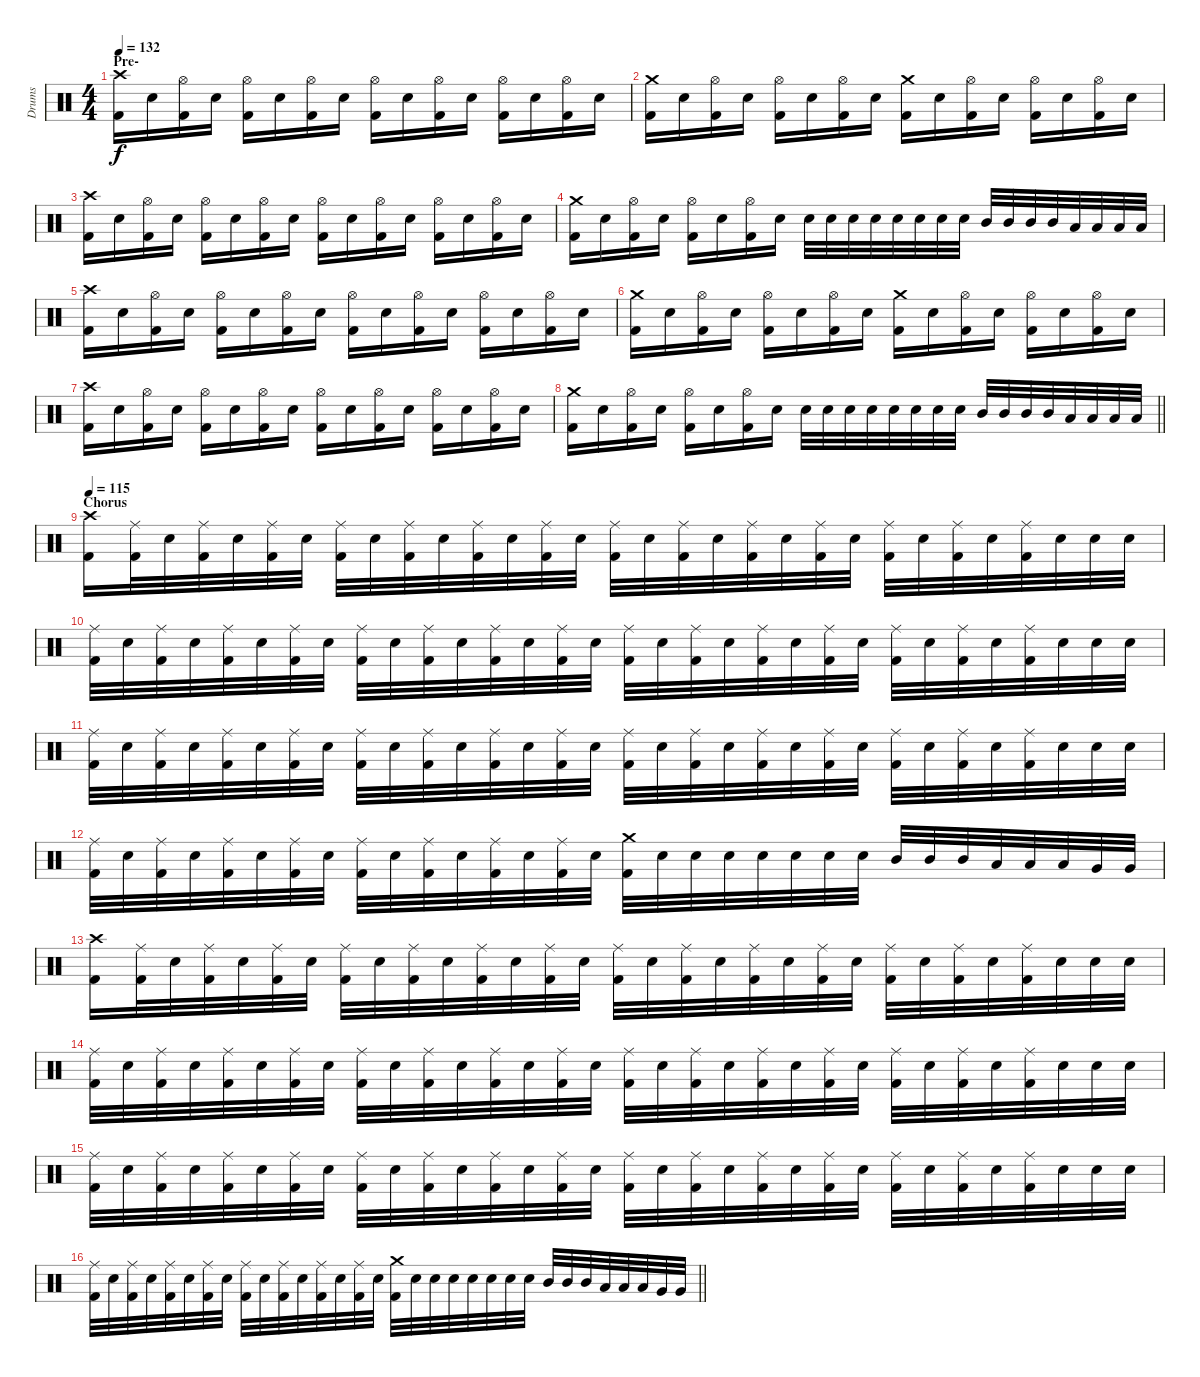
\track ("Drums" "Drums") {instrument percussion}
\staff {score}
\articulation defaults
\ts (4 4)
\section ("" "Pre-")
\tempo 132
\clef neutral
\ks c
("Crash high (hit)" "Kick (hit) 2").16{dy f} "Electric Snare (hit)".16 ("Hi-Hat (open)" "Kick (hit) 2").16 "Electric Snare (hit)".16 ("Hi-Hat (open)" "Kick (hit) 2").16 "Electric Snare (hit)".16 ("Hi-Hat (open)" "Kick (hit) 2").16 "Electric Snare (hit)".16 ("Hi-Hat (open)" "Kick (hit) 2").16 "Electric Snare (hit)".16 ("Hi-Hat (open)" "Kick (hit) 2").16 "Electric Snare (hit)".16 ("Hi-Hat (open)" "Kick (hit) 2").16 "Electric Snare (hit)".16 ("Hi-Hat (open)" "Kick (hit) 2").16 "Electric Snare (hit)".16 |
("Crash medium (hit)" "Kick (hit) 2").16 "Electric Snare (hit)".16 ("Hi-Hat (open)" "Kick (hit) 2").16 "Electric Snare (hit)".16 ("Hi-Hat (open)" "Kick (hit) 2").16 "Electric Snare (hit)".16 ("Hi-Hat (open)" "Kick (hit) 2").16 "Electric Snare (hit)".16 ("Crash medium (hit)" "Kick (hit) 2").16 "Electric Snare (hit)".16 ("Hi-Hat (open)" "Kick (hit) 2").16 "Electric Snare (hit)".16 ("Hi-Hat (open)" "Kick (hit) 2").16 "Electric Snare (hit)".16 ("Hi-Hat (open)" "Kick (hit) 2").16 "Electric Snare (hit)".16 |
("Crash high (hit)" "Kick (hit) 2").16 "Electric Snare (hit)".16 ("Hi-Hat (open)" "Kick (hit) 2").16 "Electric Snare (hit)".16 ("Hi-Hat (open)" "Kick (hit) 2").16 "Electric Snare (hit)".16 ("Hi-Hat (open)" "Kick (hit) 2").16 "Electric Snare (hit)".16 ("Hi-Hat (open)" "Kick (hit) 2").16 "Electric Snare (hit)".16 ("Hi-Hat (open)" "Kick (hit) 2").16 "Electric Snare (hit)".16 ("Hi-Hat (open)" "Kick (hit) 2").16 "Electric Snare (hit)".16 ("Hi-Hat (open)" "Kick (hit) 2").16 "Electric Snare (hit)".16 |
("Crash medium (hit)" "Kick (hit) 2").16 "Electric Snare (hit)".16 ("Hi-Hat (open)" "Kick (hit) 2").16 "Electric Snare (hit)".16 ("Hi-Hat (open)" "Kick (hit) 2").16 "Electric Snare (hit)".16 ("Hi-Hat (open)" "Kick (hit) 2").16 "Electric Snare (hit)".16 "Electric Snare (hit)".32 "Electric Snare (hit)".32 "Electric Snare (hit)".32 "Electric Snare (hit)".32 "Electric Snare (hit)".32 "Electric Snare (hit)".32 "Electric Snare (hit)".32 "Electric Snare (hit)".32 "Mid Tom (hit)".32 "Mid Tom (hit)".32 "Mid Tom (hit)".32 "Mid Tom (hit)".32 "Low Tom (hit)".32 "Low Tom (hit)".32 "Low Tom (hit)".32 "Low Tom (hit)".32 |
("Crash high (hit)" "Kick (hit) 2").16 "Electric Snare (hit)".16 ("Hi-Hat (open)" "Kick (hit) 2").16 "Electric Snare (hit)".16 ("Hi-Hat (open)" "Kick (hit) 2").16 "Electric Snare (hit)".16 ("Hi-Hat (open)" "Kick (hit) 2").16 "Electric Snare (hit)".16 ("Hi-Hat (open)" "Kick (hit) 2").16 "Electric Snare (hit)".16 ("Hi-Hat (open)" "Kick (hit) 2").16 "Electric Snare (hit)".16 ("Hi-Hat (open)" "Kick (hit) 2").16 "Electric Snare (hit)".16 ("Hi-Hat (open)" "Kick (hit) 2").16 "Electric Snare (hit)".16 |
("Crash medium (hit)" "Kick (hit) 2").16 "Electric Snare (hit)".16 ("Hi-Hat (open)" "Kick (hit) 2").16 "Electric Snare (hit)".16 ("Hi-Hat (open)" "Kick (hit) 2").16 "Electric Snare (hit)".16 ("Hi-Hat (open)" "Kick (hit) 2").16 "Electric Snare (hit)".16 ("Crash medium (hit)" "Kick (hit) 2").16 "Electric Snare (hit)".16 ("Hi-Hat (open)" "Kick (hit) 2").16 "Electric Snare (hit)".16 ("Hi-Hat (open)" "Kick (hit) 2").16 "Electric Snare (hit)".16 ("Hi-Hat (open)" "Kick (hit) 2").16 "Electric Snare (hit)".16 |
("Crash high (hit)" "Kick (hit) 2").16 "Electric Snare (hit)".16 ("Hi-Hat (open)" "Kick (hit) 2").16 "Electric Snare (hit)".16 ("Hi-Hat (open)" "Kick (hit) 2").16 "Electric Snare (hit)".16 ("Hi-Hat (open)" "Kick (hit) 2").16 "Electric Snare (hit)".16 ("Hi-Hat (open)" "Kick (hit) 2").16 "Electric Snare (hit)".16 ("Hi-Hat (open)" "Kick (hit) 2").16 "Electric Snare (hit)".16 ("Hi-Hat (open)" "Kick (hit) 2").16 "Electric Snare (hit)".16 ("Hi-Hat (open)" "Kick (hit) 2").16 "Electric Snare (hit)".16 |
\barLineRight lightlight
("Crash medium (hit)" "Kick (hit) 2").16 "Electric Snare (hit)".16 ("Hi-Hat (open)" "Kick (hit) 2").16 "Electric Snare (hit)".16 ("Hi-Hat (open)" "Kick (hit) 2").16 "Electric Snare (hit)".16 ("Hi-Hat (open)" "Kick (hit) 2").16 "Electric Snare (hit)".16 "Electric Snare (hit)".32 "Electric Snare (hit)".32 "Electric Snare (hit)".32 "Electric Snare (hit)".32 "Electric Snare (hit)".32 "Electric Snare (hit)".32 "Electric Snare (hit)".32 "Electric Snare (hit)".32 "Mid Tom (hit)".32 "Mid Tom (hit)".32 "Mid Tom (hit)".32 "Mid Tom (hit)".32 "Low Tom (hit)".32 "Low Tom (hit)".32 "Low Tom (hit)".32 "Low Tom (hit)".32 |
\section ("" "Chorus")
\tempo 115
("Crash high (hit)" "Kick (hit) 2").16 ("Ride (middle)" "Kick (hit) 2").32 "Electric Snare (hit)".32 ("Ride (middle)" "Kick (hit) 2").32 "Electric Snare (hit)".32 ("Ride (middle)" "Kick (hit) 2").32 "Electric Snare (hit)".32 ("Ride (middle)" "Kick (hit) 2").32 "Electric Snare (hit)".32 ("Ride (middle)" "Kick (hit) 2").32 "Electric Snare (hit)".32 ("Ride (middle)" "Kick (hit) 2").32 "Electric Snare (hit)".32 ("Ride (middle)" "Kick (hit) 2").32 "Electric Snare (hit)".32 ("Ride (middle)" "Kick (hit) 2").32 "Electric Snare (hit)".32 ("Ride (middle)" "Kick (hit) 2").32 "Electric Snare (hit)".32 ("Ride (middle)" "Kick (hit) 2").32 "Electric Snare (hit)".32 ("Ride (middle)" "Kick (hit) 2").32 "Electric Snare (hit)".32 ("Ride (middle)" "Kick (hit) 2").32 "Electric Snare (hit)".32 ("Ride (middle)" "Kick (hit) 2").32 "Electric Snare (hit)".32 ("Ride (middle)" "Kick (hit) 2").32 "Electric Snare (hit)".32 "Electric Snare (hit)".32 "Electric Snare (hit)".32 |
("Ride (middle)" "Kick (hit) 2").32 "Electric Snare (hit)".32 ("Ride (middle)" "Kick (hit) 2").32 "Electric Snare (hit)".32 ("Ride (middle)" "Kick (hit) 2").32 "Electric Snare (hit)".32 ("Ride (middle)" "Kick (hit) 2").32 "Electric Snare (hit)".32 ("Ride (middle)" "Kick (hit) 2").32 "Electric Snare (hit)".32 ("Ride (middle)" "Kick (hit) 2").32 "Electric Snare (hit)".32 ("Ride (middle)" "Kick (hit) 2").32 "Electric Snare (hit)".32 ("Ride (middle)" "Kick (hit) 2").32 "Electric Snare (hit)".32 ("Ride (middle)" "Kick (hit) 2").32 "Electric Snare (hit)".32 ("Ride (middle)" "Kick (hit) 2").32 "Electric Snare (hit)".32 ("Ride (middle)" "Kick (hit) 2").32 "Electric Snare (hit)".32 ("Ride (middle)" "Kick (hit) 2").32 "Electric Snare (hit)".32 ("Ride (middle)" "Kick (hit) 2").32 "Electric Snare (hit)".32 ("Ride (middle)" "Kick (hit) 2").32 "Electric Snare (hit)".32 ("Ride (middle)" "Kick (hit) 2").32 "Electric Snare (hit)".32 "Electric Snare (hit)".32 "Electric Snare (hit)".32 |
("Ride (middle)" "Kick (hit) 2").32 "Electric Snare (hit)".32 ("Ride (middle)" "Kick (hit) 2").32 "Electric Snare (hit)".32 ("Ride (middle)" "Kick (hit) 2").32 "Electric Snare (hit)".32 ("Ride (middle)" "Kick (hit) 2").32 "Electric Snare (hit)".32 ("Ride (middle)" "Kick (hit) 2").32 "Electric Snare (hit)".32 ("Ride (middle)" "Kick (hit) 2").32 "Electric Snare (hit)".32 ("Ride (middle)" "Kick (hit) 2").32 "Electric Snare (hit)".32 ("Ride (middle)" "Kick (hit) 2").32 "Electric Snare (hit)".32 ("Ride (middle)" "Kick (hit) 2").32 "Electric Snare (hit)".32 ("Ride (middle)" "Kick (hit) 2").32 "Electric Snare (hit)".32 ("Ride (middle)" "Kick (hit) 2").32 "Electric Snare (hit)".32 ("Ride (middle)" "Kick (hit) 2").32 "Electric Snare (hit)".32 ("Ride (middle)" "Kick (hit) 2").32 "Electric Snare (hit)".32 ("Ride (middle)" "Kick (hit) 2").32 "Electric Snare (hit)".32 ("Ride (middle)" "Kick (hit) 2").32 "Electric Snare (hit)".32 "Electric Snare (hit)".32 "Electric Snare (hit)".32 |
("Ride (middle)" "Kick (hit) 2").32 "Electric Snare (hit)".32 ("Ride (middle)" "Kick (hit) 2").32 "Electric Snare (hit)".32 ("Ride (middle)" "Kick (hit) 2").32 "Electric Snare (hit)".32 ("Ride (middle)" "Kick (hit) 2").32 "Electric Snare (hit)".32 ("Ride (middle)" "Kick (hit) 2").32 "Electric Snare (hit)".32 ("Ride (middle)" "Kick (hit) 2").32 "Electric Snare (hit)".32 ("Ride (middle)" "Kick (hit) 2").32 "Electric Snare (hit)".32 ("Ride (middle)" "Kick (hit) 2").32 "Electric Snare (hit)".32 ("Crash medium (hit)" "Kick (hit) 2").32 "Electric Snare (hit)".32 "Electric Snare (hit)".32 "Electric Snare (hit)".32 "Electric Snare (hit)".32 "Electric Snare (hit)".32 "Electric Snare (hit)".32 "Electric Snare (hit)".32 "Mid Tom (hit)".32 "Mid Tom (hit)".32 "Mid Tom (hit)".32 "Low Tom (hit)".32 "Low Tom (hit)".32 "Low Tom (hit)".32 "Very Low Tom (hit)".32 "Very Low Tom (hit)".32 |
("Crash high (hit)" "Kick (hit) 2").16 ("Ride (middle)" "Kick (hit) 2").32 "Electric Snare (hit)".32 ("Ride (middle)" "Kick (hit) 2").32 "Electric Snare (hit)".32 ("Ride (middle)" "Kick (hit) 2").32 "Electric Snare (hit)".32 ("Ride (middle)" "Kick (hit) 2").32 "Electric Snare (hit)".32 ("Ride (middle)" "Kick (hit) 2").32 "Electric Snare (hit)".32 ("Ride (middle)" "Kick (hit) 2").32 "Electric Snare (hit)".32 ("Ride (middle)" "Kick (hit) 2").32 "Electric Snare (hit)".32 ("Ride (middle)" "Kick (hit) 2").32 "Electric Snare (hit)".32 ("Ride (middle)" "Kick (hit) 2").32 "Electric Snare (hit)".32 ("Ride (middle)" "Kick (hit) 2").32 "Electric Snare (hit)".32 ("Ride (middle)" "Kick (hit) 2").32 "Electric Snare (hit)".32 ("Ride (middle)" "Kick (hit) 2").32 "Electric Snare (hit)".32 ("Ride (middle)" "Kick (hit) 2").32 "Electric Snare (hit)".32 ("Ride (middle)" "Kick (hit) 2").32 "Electric Snare (hit)".32 "Electric Snare (hit)".32 "Electric Snare (hit)".32 |
("Ride (middle)" "Kick (hit) 2").32 "Electric Snare (hit)".32 ("Ride (middle)" "Kick (hit) 2").32 "Electric Snare (hit)".32 ("Ride (middle)" "Kick (hit) 2").32 "Electric Snare (hit)".32 ("Ride (middle)" "Kick (hit) 2").32 "Electric Snare (hit)".32 ("Ride (middle)" "Kick (hit) 2").32 "Electric Snare (hit)".32 ("Ride (middle)" "Kick (hit) 2").32 "Electric Snare (hit)".32 ("Ride (middle)" "Kick (hit) 2").32 "Electric Snare (hit)".32 ("Ride (middle)" "Kick (hit) 2").32 "Electric Snare (hit)".32 ("Ride (middle)" "Kick (hit) 2").32 "Electric Snare (hit)".32 ("Ride (middle)" "Kick (hit) 2").32 "Electric Snare (hit)".32 ("Ride (middle)" "Kick (hit) 2").32 "Electric Snare (hit)".32 ("Ride (middle)" "Kick (hit) 2").32 "Electric Snare (hit)".32 ("Ride (middle)" "Kick (hit) 2").32 "Electric Snare (hit)".32 ("Ride (middle)" "Kick (hit) 2").32 "Electric Snare (hit)".32 ("Ride (middle)" "Kick (hit) 2").32 "Electric Snare (hit)".32 "Electric Snare (hit)".32 "Electric Snare (hit)".32 |
("Ride (middle)" "Kick (hit) 2").32 "Electric Snare (hit)".32 ("Ride (middle)" "Kick (hit) 2").32 "Electric Snare (hit)".32 ("Ride (middle)" "Kick (hit) 2").32 "Electric Snare (hit)".32 ("Ride (middle)" "Kick (hit) 2").32 "Electric Snare (hit)".32 ("Ride (middle)" "Kick (hit) 2").32 "Electric Snare (hit)".32 ("Ride (middle)" "Kick (hit) 2").32 "Electric Snare (hit)".32 ("Ride (middle)" "Kick (hit) 2").32 "Electric Snare (hit)".32 ("Ride (middle)" "Kick (hit) 2").32 "Electric Snare (hit)".32 ("Ride (middle)" "Kick (hit) 2").32 "Electric Snare (hit)".32 ("Ride (middle)" "Kick (hit) 2").32 "Electric Snare (hit)".32 ("Ride (middle)" "Kick (hit) 2").32 "Electric Snare (hit)".32 ("Ride (middle)" "Kick (hit) 2").32 "Electric Snare (hit)".32 ("Ride (middle)" "Kick (hit) 2").32 "Electric Snare (hit)".32 ("Ride (middle)" "Kick (hit) 2").32 "Electric Snare (hit)".32 ("Ride (middle)" "Kick (hit) 2").32 "Electric Snare (hit)".32 "Electric Snare (hit)".32 "Electric Snare (hit)".32 |
\barLineRight lightlight
("Ride (middle)" "Kick (hit) 2").32 "Electric Snare (hit)".32 ("Ride (middle)" "Kick (hit) 2").32 "Electric Snare (hit)".32 ("Ride (middle)" "Kick (hit) 2").32 "Electric Snare (hit)".32 ("Ride (middle)" "Kick (hit) 2").32 "Electric Snare (hit)".32 ("Ride (middle)" "Kick (hit) 2").32 "Electric Snare (hit)".32 ("Ride (middle)" "Kick (hit) 2").32 "Electric Snare (hit)".32 ("Ride (middle)" "Kick (hit) 2").32 "Electric Snare (hit)".32 ("Ride (middle)" "Kick (hit) 2").32 "Electric Snare (hit)".32 ("Crash medium (hit)" "Kick (hit) 2").32 "Electric Snare (hit)".32 "Electric Snare (hit)".32 "Electric Snare (hit)".32 "Electric Snare (hit)".32 "Electric Snare (hit)".32 "Electric Snare (hit)".32 "Electric Snare (hit)".32 "Mid Tom (hit)".32 "Mid Tom (hit)".32 "Mid Tom (hit)".32 "Low Tom (hit)".32 "Low Tom (hit)".32 "Low Tom (hit)".32 "Very Low Tom (hit)".32 "Very Low Tom (hit)".32
